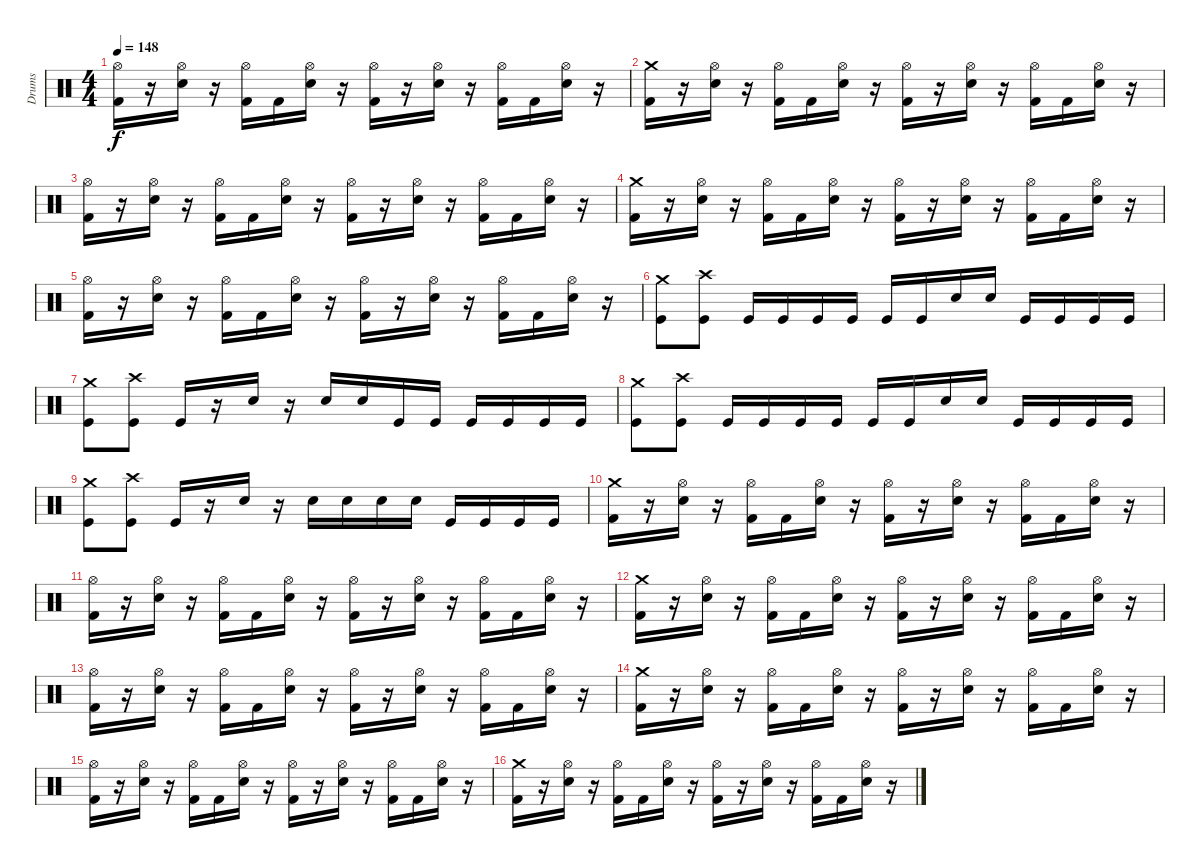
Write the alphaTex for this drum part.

\track ("Drums" "Drums") {instrument percussion}
\staff {score}
\articulation defaults
\ts (4 4)
\tempo 148
\clef neutral
\ks c
("Hi-Hat (open)" "Kick (hit) 2").16{dy f} r.16 ("Hi-Hat (open)" "Electric Snare (hit)").16 r.16 ("Hi-Hat (open)" "Kick (hit) 2").16 "Kick (hit) 2".16 ("Hi-Hat (open)" "Electric Snare (hit)").16 r.16 ("Hi-Hat (open)" "Kick (hit) 2").16 r.16 ("Hi-Hat (open)" "Electric Snare (hit)").16 r.16 ("Hi-Hat (open)" "Kick (hit) 2").16 "Kick (hit) 2".16 ("Hi-Hat (open)" "Electric Snare (hit)").16 r.16 |
("Crash medium (hit)" "Kick (hit) 2").16 r.16 ("Hi-Hat (open)" "Electric Snare (hit)").16 r.16 ("Hi-Hat (open)" "Kick (hit) 2").16 "Kick (hit) 2".16 ("Hi-Hat (open)" "Electric Snare (hit)").16 r.16 ("Hi-Hat (open)" "Kick (hit) 2").16 r.16 ("Hi-Hat (open)" "Electric Snare (hit)").16 r.16 ("Hi-Hat (open)" "Kick (hit) 2").16 "Kick (hit) 2".16 ("Hi-Hat (open)" "Electric Snare (hit)").16 r.16 |
("Hi-Hat (open)" "Kick (hit) 2").16 r.16 ("Hi-Hat (open)" "Electric Snare (hit)").16 r.16 ("Hi-Hat (open)" "Kick (hit) 2").16 "Kick (hit) 2".16 ("Hi-Hat (open)" "Electric Snare (hit)").16 r.16 ("Hi-Hat (open)" "Kick (hit) 2").16 r.16 ("Hi-Hat (open)" "Electric Snare (hit)").16 r.16 ("Hi-Hat (open)" "Kick (hit) 2").16 "Kick (hit) 2".16 ("Hi-Hat (open)" "Electric Snare (hit)").16 r.16 |
("Crash medium (hit)" "Kick (hit) 2").16 r.16 ("Hi-Hat (open)" "Electric Snare (hit)").16 r.16 ("Hi-Hat (open)" "Kick (hit) 2").16 "Kick (hit) 2".16 ("Hi-Hat (open)" "Electric Snare (hit)").16 r.16 ("Hi-Hat (open)" "Kick (hit) 2").16 r.16 ("Hi-Hat (open)" "Electric Snare (hit)").16 r.16 ("Hi-Hat (open)" "Kick (hit) 2").16 "Kick (hit) 2".16 ("Hi-Hat (open)" "Electric Snare (hit)").16 r.16 |
("Hi-Hat (open)" "Kick (hit) 2").16 r.16 ("Hi-Hat (open)" "Electric Snare (hit)").16 r.16 ("Hi-Hat (open)" "Kick (hit) 2").16 "Kick (hit) 2".16 ("Hi-Hat (open)" "Electric Snare (hit)").16 r.16 ("Hi-Hat (open)" "Kick (hit) 2").16 r.16 ("Hi-Hat (open)" "Electric Snare (hit)").16 r.16 ("Hi-Hat (open)" "Kick (hit) 2").16 "Kick (hit) 2".16 ("Hi-Hat (open)" "Electric Snare (hit)").16 r.16 |
("Crash medium (hit)" "Kick (hit)").8 ("Crash high (hit)" "Kick (hit)").8 "Kick (hit)".16{balance 2} "Kick (hit)".16 "Kick (hit)".16{balance 3} "Kick (hit)".16 "Kick (hit)".16{balance 4} "Kick (hit)".16 "Electric Snare (hit)".16{balance 5} "Electric Snare (hit)".16 "Kick (hit)".16{balance 6} "Kick (hit)".16 "Kick (hit)".16{balance 7} "Kick (hit)".16 |
("Crash medium (hit)" "Kick (hit)").8{balance 8} ("Crash high (hit)" "Kick (hit)").8 "Kick (hit)".16{balance 9} r.16 "Electric Snare (hit)".16{balance 10} r.16 "Electric Snare (hit)".16{balance 11} "Electric Snare (hit)".16 "Kick (hit)".16{balance 12} "Kick (hit)".16 "Kick (hit)".16{balance 13} "Kick (hit)".16 "Kick (hit)".16{balance 14} "Kick (hit)".16 |
("Crash medium (hit)" "Kick (hit)").8{balance 13} ("Crash high (hit)" "Kick (hit)").8{balance 12} "Kick (hit)".16 "Kick (hit)".16{balance 11} "Kick (hit)".16 "Kick (hit)".16{balance 10} "Kick (hit)".16 "Kick (hit)".16{balance 9} "Electric Snare (hit)".16 "Electric Snare (hit)".16{balance 8} "Kick (hit)".16 "Kick (hit)".16{balance 7} "Kick (hit)".16{balance 6} "Kick (hit)".16{balance 5} |
("Crash medium (hit)" "Kick (hit)").8{balance 8} ("Crash high (hit)" "Kick (hit)").8 "Kick (hit)".16 r.16 "Electric Snare (hit)".16 r.16 "Electric Snare (hit)".16 "Electric Snare (hit)".16 "Electric Snare (hit)".16 "Electric Snare (hit)".16 "Kick (hit)".16 "Kick (hit)".16 "Kick (hit)".16 "Kick (hit)".16 |
("Crash medium (hit)" "Kick (hit) 2").16 r.16 ("Hi-Hat (open)" "Electric Snare (hit)").16 r.16 ("Hi-Hat (open)" "Kick (hit) 2").16 "Kick (hit) 2".16 ("Hi-Hat (open)" "Electric Snare (hit)").16 r.16 ("Hi-Hat (open)" "Kick (hit) 2").16 r.16 ("Hi-Hat (open)" "Electric Snare (hit)").16 r.16 ("Hi-Hat (open)" "Kick (hit) 2").16 "Kick (hit) 2".16 ("Hi-Hat (open)" "Electric Snare (hit)").16 r.16 |
("Hi-Hat (open)" "Kick (hit) 2").16 r.16 ("Hi-Hat (open)" "Electric Snare (hit)").16 r.16 ("Hi-Hat (open)" "Kick (hit) 2").16 "Kick (hit) 2".16 ("Hi-Hat (open)" "Electric Snare (hit)").16 r.16 ("Hi-Hat (open)" "Kick (hit) 2").16 r.16 ("Hi-Hat (open)" "Electric Snare (hit)").16 r.16 ("Hi-Hat (open)" "Kick (hit) 2").16 "Kick (hit) 2".16 ("Hi-Hat (open)" "Electric Snare (hit)").16 r.16 |
("Crash medium (hit)" "Kick (hit) 2").16 r.16 ("Hi-Hat (open)" "Electric Snare (hit)").16 r.16 ("Hi-Hat (open)" "Kick (hit) 2").16 "Kick (hit) 2".16 ("Hi-Hat (open)" "Electric Snare (hit)").16 r.16 ("Hi-Hat (open)" "Kick (hit) 2").16 r.16 ("Hi-Hat (open)" "Electric Snare (hit)").16 r.16 ("Hi-Hat (open)" "Kick (hit) 2").16 "Kick (hit) 2".16 ("Hi-Hat (open)" "Electric Snare (hit)").16 r.16 |
("Hi-Hat (open)" "Kick (hit) 2").16 r.16 ("Hi-Hat (open)" "Electric Snare (hit)").16 r.16 ("Hi-Hat (open)" "Kick (hit) 2").16 "Kick (hit) 2".16 ("Hi-Hat (open)" "Electric Snare (hit)").16 r.16 ("Hi-Hat (open)" "Kick (hit) 2").16 r.16 ("Hi-Hat (open)" "Electric Snare (hit)").16 r.16 ("Hi-Hat (open)" "Kick (hit) 2").16 "Kick (hit) 2".16 ("Hi-Hat (open)" "Electric Snare (hit)").16 r.16 |
("Crash medium (hit)" "Kick (hit) 2").16 r.16 ("Hi-Hat (open)" "Electric Snare (hit)").16 r.16 ("Hi-Hat (open)" "Kick (hit) 2").16 "Kick (hit) 2".16 ("Hi-Hat (open)" "Electric Snare (hit)").16 r.16 ("Hi-Hat (open)" "Kick (hit) 2").16 r.16 ("Hi-Hat (open)" "Electric Snare (hit)").16 r.16 ("Hi-Hat (open)" "Kick (hit) 2").16 "Kick (hit) 2".16 ("Hi-Hat (open)" "Electric Snare (hit)").16 r.16 |
("Hi-Hat (open)" "Kick (hit) 2").16 r.16 ("Hi-Hat (open)" "Electric Snare (hit)").16 r.16 ("Hi-Hat (open)" "Kick (hit) 2").16 "Kick (hit) 2".16 ("Hi-Hat (open)" "Electric Snare (hit)").16 r.16 ("Hi-Hat (open)" "Kick (hit) 2").16 r.16 ("Hi-Hat (open)" "Electric Snare (hit)").16 r.16 ("Hi-Hat (open)" "Kick (hit) 2").16 "Kick (hit) 2".16 ("Hi-Hat (open)" "Electric Snare (hit)").16 r.16 |
("Crash medium (hit)" "Kick (hit) 2").16 r.16 ("Hi-Hat (open)" "Electric Snare (hit)").16 r.16 ("Hi-Hat (open)" "Kick (hit) 2").16 "Kick (hit) 2".16 ("Hi-Hat (open)" "Electric Snare (hit)").16 r.16 ("Hi-Hat (open)" "Kick (hit) 2").16 r.16 ("Hi-Hat (open)" "Electric Snare (hit)").16 r.16 ("Hi-Hat (open)" "Kick (hit) 2").16 "Kick (hit) 2".16 ("Hi-Hat (open)" "Electric Snare (hit)").16 r.16
